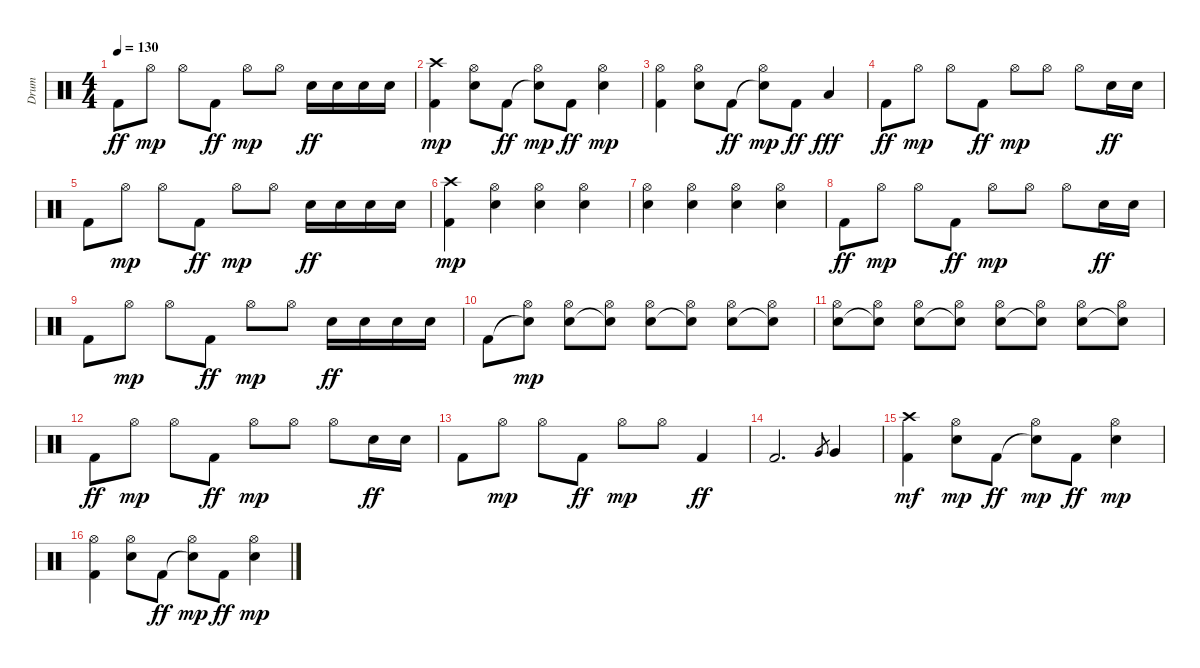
\track ("Drum" "Drum") {instrument percussion}
\staff {score}
\articulation defaults
\ts (4 4)
\tempo 130
\clef neutral
\ks c "Kick (hit) 2".8{dy ff} "Hi-Hat (open)".8{dy mp} "Hi-Hat (open)".8 "Kick (hit) 2".8{dy ff} "Hi-Hat (open)".8{dy mp} "Hi-Hat (open)".8 "Electric Snare (hit)".16{dy ff} "Electric Snare (hit)".16 "Electric Snare (hit)".16 "Electric Snare (hit)".16
|
("Kick (hit) 2" "Crash high (hit)").4{dy mp} ("Electric Snare (hit)" "Hi-Hat (open)").8 "Kick (hit) 2".8{dy ff} ("Snare (hit)"{t} "Hi-Hat (open)").8{dy mp} "Kick (hit) 2".8{dy ff} ("Electric Snare (hit)" "Hi-Hat (open)").4{dy mp} |
("Kick (hit) 2" "Hi-Hat (open)").4 ("Electric Snare (hit)" "Hi-Hat (open)").8 "Kick (hit) 2".8{dy ff} ("Snare (hit)"{t} "Hi-Hat (open)").8{dy mp} "Kick (hit) 2".8{dy ff} "Low Tom (hit)".4{dy fff} |
"Kick (hit) 2".8{dy ff} "Hi-Hat (open)".8{dy mp} "Hi-Hat (open)".8 "Kick (hit) 2".8{dy ff} "Hi-Hat (open)".8{dy mp} "Hi-Hat (open)".8 "Hi-Hat (open)".8 "Electric Snare (hit)".16{dy ff} "Electric Snare (hit)".16 |
"Kick (hit) 2".8 "Hi-Hat (open)".8{dy mp} "Hi-Hat (open)".8 "Kick (hit) 2".8{dy ff} "Hi-Hat (open)".8{dy mp} "Hi-Hat (open)".8 "Electric Snare (hit)".16{dy ff} "Electric Snare (hit)".16 "Electric Snare (hit)".16 "Electric Snare (hit)".16 |
("Kick (hit) 2" "Crash high (hit)").4{dy mp} ("Electric Snare (hit)" "Hi-Hat (open)").4 ("Electric Snare (hit)" "Hi-Hat (open)").4 ("Electric Snare (hit)" "Hi-Hat (open)").4 |
("Electric Snare (hit)" "Hi-Hat (open)").4 ("Electric Snare (hit)" "Hi-Hat (open)").4 ("Electric Snare (hit)" "Hi-Hat (open)").4 ("Electric Snare (hit)" "Hi-Hat (open)").4 |
"Kick (hit) 2".8{dy ff} "Hi-Hat (open)".8{dy mp} "Hi-Hat (open)".8 "Kick (hit) 2".8{dy ff} "Hi-Hat (open)".8{dy mp} "Hi-Hat (open)".8 "Hi-Hat (open)".8 "Electric Snare (hit)".16{dy ff} "Electric Snare (hit)".16 |
"Kick (hit) 2".8 "Hi-Hat (open)".8{dy mp} "Hi-Hat (open)".8 "Kick (hit) 2".8{dy ff} "Hi-Hat (open)".8{dy mp} "Hi-Hat (open)".8 "Electric Snare (hit)".16{dy ff} "Electric Snare (hit)".16 "Electric Snare (hit)".16 "Electric Snare (hit)".16 |
"Kick (hit) 2".8 ("Snare (hit)"{t} "Hi-Hat (open)").8{dy mp} ("Electric Snare (hit)" "Hi-Hat (open)").8 ("Snare (hit)"{t} "Hi-Hat (open)").8 ("Electric Snare (hit)" "Hi-Hat (open)").8 ("Snare (hit)"{t} "Hi-Hat (open)").8 ("Electric Snare (hit)" "Hi-Hat (open)").8 ("Snare (hit)"{t} "Hi-Hat (open)").8 |
("Electric Snare (hit)" "Hi-Hat (open)").8 ("Snare (hit)"{t} "Hi-Hat (open)").8 ("Electric Snare (hit)" "Hi-Hat (open)").8 ("Snare (hit)"{t} "Hi-Hat (open)").8 ("Electric Snare (hit)" "Hi-Hat (open)").8 ("Snare (hit)"{t} "Hi-Hat (open)").8 ("Electric Snare (hit)" "Hi-Hat (open)").8 ("Snare (hit)"{t} "Hi-Hat (open)").8 |
"Kick (hit) 2".8{dy ff} "Hi-Hat (open)".8{dy mp} "Hi-Hat (open)".8 "Kick (hit) 2".8{dy ff} "Hi-Hat (open)".8{dy mp} "Hi-Hat (open)".8 "Hi-Hat (open)".8 "Electric Snare (hit)".16{dy ff} "Electric Snare (hit)".16 |
"Kick (hit) 2".8 "Hi-Hat (open)".8{dy mp} "Hi-Hat (open)".8 "Kick (hit) 2".8{dy ff} "Hi-Hat (open)".8{dy mp} "Hi-Hat (open)".8 "Kick (hit) 2".4{dy ff} |
"Kick (hit) 2".2{d} "Very Low Tom (hit)".8{gr} "Very Low Tom (hit)".4 |
("Kick (hit) 2" "Crash high (hit)").4{dy mf} ("Electric Snare (hit)" "Hi-Hat (open)").8{dy mp} "Kick (hit) 2".8{dy ff} ("Snare (hit)"{t} "Hi-Hat (open)").8{dy mp} "Kick (hit) 2".8{dy ff} ("Electric Snare (hit)" "Hi-Hat (open)").4{dy mp} |
("Kick (hit) 2" "Hi-Hat (open)").4 ("Electric Snare (hit)" "Hi-Hat (open)").8 "Kick (hit) 2".8{dy ff} ("Snare (hit)"{t} "Hi-Hat (open)").8{dy mp} "Kick (hit) 2".8{dy ff} ("Electric Snare (hit)" "Hi-Hat (open)").4{dy mp}
